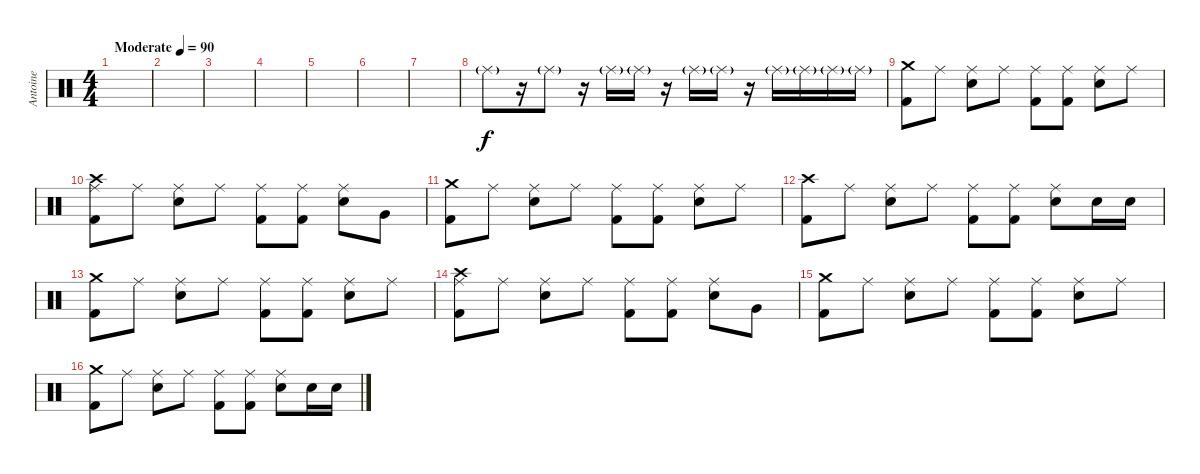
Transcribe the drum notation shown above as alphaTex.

\track ("Antoine" "Antoine") {instrument percussion}
\staff {score}
\articulation defaults
\ts (4 4)
\tempo (90 "Moderate")
\clef neutral
\ks c
|
|
|
|
|
|
|
"Ride (middle)"{g}.8 r.16 "Ride (middle)"{g}.8 r.16 "Ride (middle)"{g}.16 "Ride (middle)"{g}.16 r.16 "Ride (middle)"{g}.16 "Ride (middle)"{g}.16 r.16 "Ride (middle)"{g}.16 "Ride (middle)"{g}.16 "Ride (middle)"{g}.16 "Ride (middle)"{g}.16 |
("Crash medium (hit)" "Kick (hit) 2").8{dy f} "Ride (middle)".8 ("Ride (middle)" "Electric Snare (hit)").8 "Ride (middle)".8 ("Ride (middle)" "Kick (hit) 2").8 ("Ride (middle)" "Kick (hit) 2").8 ("Ride (middle)" "Electric Snare (hit)").8 "Ride (middle)".8 |
("Crash high (hit)" "Ride (middle)" "Kick (hit) 2").8 "Ride (middle)".8 ("Ride (middle)" "Electric Snare (hit)").8 "Ride (middle)".8 ("Ride (middle)" "Kick (hit) 2").8 ("Ride (middle)" "Kick (hit) 2").8 ("Ride (middle)" "Electric Snare (hit)").8 "Very Low Tom (hit)".8 |
("Crash medium (hit)" "Kick (hit) 2").8 "Ride (middle)".8 ("Ride (middle)" "Electric Snare (hit)").8 "Ride (middle)".8 ("Ride (middle)" "Kick (hit) 2").8 ("Ride (middle)" "Kick (hit) 2").8 ("Ride (middle)" "Electric Snare (hit)").8 "Ride (middle)".8 |
("Crash high (hit)" "Kick (hit) 2").8 "Ride (middle)".8 ("Ride (middle)" "Electric Snare (hit)").8 "Ride (middle)".8 ("Ride (middle)" "Kick (hit) 2").8 ("Ride (middle)" "Kick (hit) 2").8 ("Ride (middle)" "Electric Snare (hit)").8 "Electric Snare (hit)".16 "Electric Snare (hit)".16 |
("Crash medium (hit)" "Kick (hit) 2").8 "Ride (middle)".8 ("Ride (middle)" "Electric Snare (hit)").8 "Ride (middle)".8 ("Ride (middle)" "Kick (hit) 2").8 ("Ride (middle)" "Kick (hit) 2").8 ("Ride (middle)" "Electric Snare (hit)").8 "Ride (middle)".8 |
("Crash high (hit)" "Ride (middle)" "Kick (hit) 2").8 "Ride (middle)".8 ("Ride (middle)" "Electric Snare (hit)").8 "Ride (middle)".8 ("Ride (middle)" "Kick (hit) 2").8 ("Ride (middle)" "Kick (hit) 2").8 ("Ride (middle)" "Electric Snare (hit)").8 "Very Low Tom (hit)".8 |
("Crash medium (hit)" "Kick (hit) 2").8 "Ride (middle)".8 ("Ride (middle)" "Electric Snare (hit)").8 "Ride (middle)".8 ("Ride (middle)" "Kick (hit) 2").8 ("Ride (middle)" "Kick (hit) 2").8 ("Ride (middle)" "Electric Snare (hit)").8 "Ride (middle)".8 |
("Crash medium (hit)" "Kick (hit) 2").8 "Ride (middle)".8 ("Ride (middle)" "Electric Snare (hit)").8 "Ride (middle)".8 ("Ride (middle)" "Kick (hit) 2").8 ("Ride (middle)" "Kick (hit) 2").8 ("Ride (middle)" "Electric Snare (hit)").8 "Electric Snare (hit)".16 "Electric Snare (hit)".16
